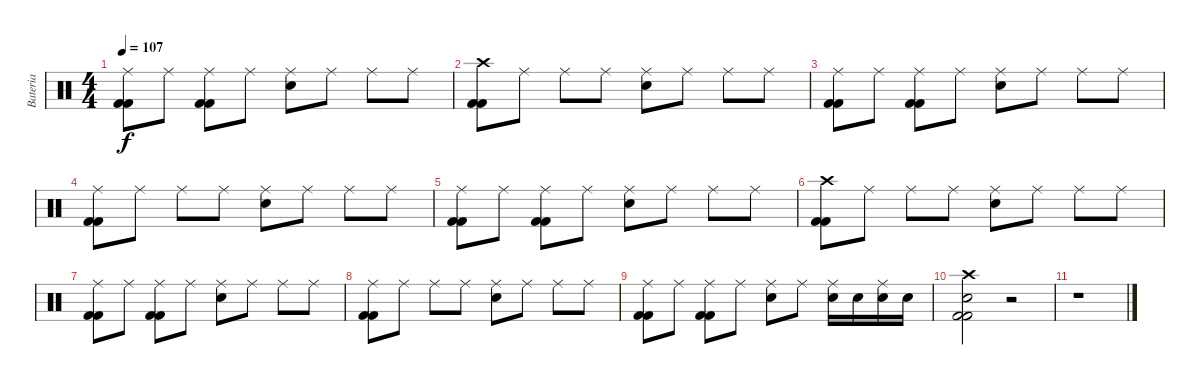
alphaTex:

\track ("Bateria" "Bateria") {instrument percussion}
\staff {score}
\articulation defaults
\ts (4 4)
\tempo 107
\clef neutral
\ks c
("Kick (hit) 2" "Kick (hit) 2" "Ride (middle)").8{dy f} "Ride (middle)".8 ("Kick (hit) 2" "Kick (hit) 2" "Ride (middle)").8 "Ride (middle)".8 ("Snare (hit) 2" "Ride (middle)").8 "Ride (middle)".8 "Ride (middle)".8 "Ride (middle)".8 |
("Kick (hit) 2" "Kick (hit) 2" "Crash high (hit)").8 "Ride (middle)".8 "Ride (middle)".8 "Ride (middle)".8 ("Snare (hit) 2" "Ride (middle)").8 "Ride (middle)".8 "Ride (middle)".8 "Ride (middle)".8 |
("Kick (hit) 2" "Kick (hit) 2" "Ride (middle)").8 "Ride (middle)".8 ("Kick (hit) 2" "Kick (hit) 2" "Ride (middle)").8 "Ride (middle)".8 ("Snare (hit) 2" "Ride (middle)").8 "Ride (middle)".8 "Ride (middle)".8 "Ride (middle)".8 |
("Kick (hit) 2" "Kick (hit) 2" "Ride (middle)").8 "Ride (middle)".8 "Ride (middle)".8 "Ride (middle)".8 ("Snare (hit) 2" "Ride (middle)").8 "Ride (middle)".8 "Ride (middle)".8 "Ride (middle)".8 |
("Kick (hit) 2" "Kick (hit) 2" "Ride (middle)").8 "Ride (middle)".8 ("Kick (hit) 2" "Kick (hit) 2" "Ride (middle)").8 "Ride (middle)".8 ("Snare (hit) 2" "Ride (middle)").8 "Ride (middle)".8 "Ride (middle)".8 "Ride (middle)".8 |
("Kick (hit) 2" "Kick (hit) 2" "Crash high (hit)").8 "Ride (middle)".8 "Ride (middle)".8 "Ride (middle)".8 ("Snare (hit) 2" "Ride (middle)").8 "Ride (middle)".8 "Ride (middle)".8 "Ride (middle)".8 |
("Kick (hit) 2" "Kick (hit) 2" "Ride (middle)").8 "Ride (middle)".8 ("Kick (hit) 2" "Kick (hit) 2" "Ride (middle)").8 "Ride (middle)".8 ("Snare (hit) 2" "Ride (middle)").8 "Ride (middle)".8 "Ride (middle)".8 "Ride (middle)".8 |
("Kick (hit) 2" "Kick (hit) 2" "Ride (middle)").8 "Ride (middle)".8 "Ride (middle)".8 "Ride (middle)".8 ("Snare (hit) 2" "Ride (middle)").8 "Ride (middle)".8 "Ride (middle)".8 "Ride (middle)".8 |
("Kick (hit) 2" "Kick (hit) 2" "Ride (middle)").8 "Ride (middle)".8 ("Kick (hit) 2" "Kick (hit) 2" "Ride (middle)").8 "Ride (middle)".8 ("Snare (hit) 2" "Ride (middle)").8 "Ride (middle)".8 ("Snare (hit) 2" "Ride (middle)").16 "Snare (hit) 2".16 ("Snare (hit) 2" "Ride (middle)").16 "Snare (hit) 2".16 |
("Kick (hit) 2" "Kick (hit) 2" "Snare (hit) 2" "Crash high (hit)").2 r.2 |
r.1
